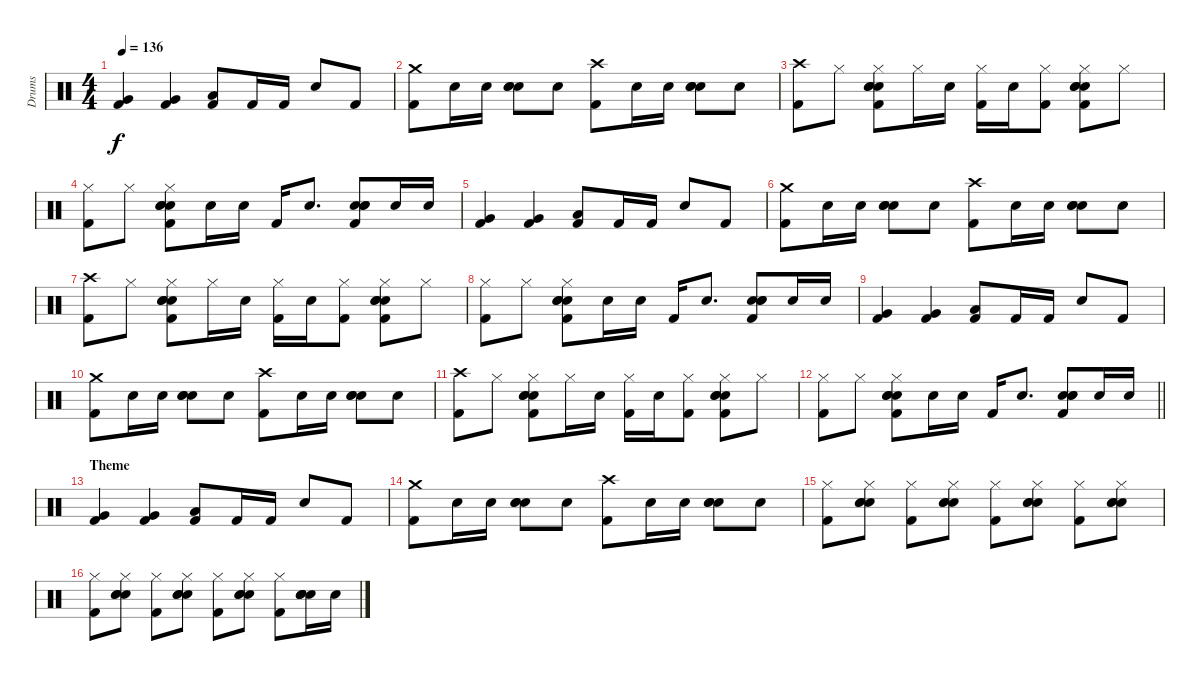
\track ("Drums" "Drums") {instrument percussion}
\staff {score}
\articulation defaults
\ts (4 4)
\tempo 136
\clef neutral
\ks c
("Very Low Tom (hit)" "Kick (hit) 2").4{dy f} ("Very Low Tom (hit)" "Kick (hit) 2").4 ("Low Tom (hit)" "Kick (hit) 2").8 "Kick (hit) 2".16 "Kick (hit) 2".16 "Electric Snare (hit)".8 "Kick (hit) 2".8 |
("Crash medium (hit)" "Kick (hit) 2").8 "Electric Snare (hit)".16 "Electric Snare (hit)".16 ("Electric Snare (hit)" "Electric Snare (hit)" "Electric Snare (hit)").8 "Electric Snare (hit)".8 ("Crash high (hit)" "Kick (hit) 2").8 "Electric Snare (hit)".16 "Electric Snare (hit)".16 ("Electric Snare (hit)" "Electric Snare (hit)" "Electric Snare (hit)").8 "Electric Snare (hit)".8 |
("Crash high (hit)" "Kick (hit) 2").8 "Hi-Hat (closed)".8 ("Hi-Hat (closed)" "Electric Snare (hit)" "Electric Snare (hit)" "Electric Snare (hit)" "Kick (hit) 2").8 "Hi-Hat (closed)".16 "Electric Snare (hit)".16 ("Hi-Hat (closed)" "Kick (hit) 2").16 "Electric Snare (hit)".16 ("Hi-Hat (closed)" "Kick (hit) 2").8 ("Hi-Hat (closed)" "Electric Snare (hit)" "Electric Snare (hit)" "Electric Snare (hit)" "Kick (hit) 2").8 "Hi-Hat (closed)".8 |
("Hi-Hat (closed)" "Kick (hit) 2").8 "Hi-Hat (closed)".8 ("Hi-Hat (closed)" "Electric Snare (hit)" "Electric Snare (hit)" "Electric Snare (hit)" "Kick (hit) 2").8 "Electric Snare (hit)".16 "Electric Snare (hit)".16 "Kick (hit) 2".16 "Electric Snare (hit)".8{d} ("Electric Snare (hit)" "Electric Snare (hit)" "Electric Snare (hit)" "Kick (hit) 2").8 "Electric Snare (hit)".16 "Electric Snare (hit)".16 |
("Very Low Tom (hit)" "Kick (hit) 2").4 ("Very Low Tom (hit)" "Kick (hit) 2").4 ("Low Tom (hit)" "Kick (hit) 2").8 "Kick (hit) 2".16 "Kick (hit) 2".16 "Electric Snare (hit)".8 "Kick (hit) 2".8 |
("Crash medium (hit)" "Kick (hit) 2").8 "Electric Snare (hit)".16 "Electric Snare (hit)".16 ("Electric Snare (hit)" "Electric Snare (hit)" "Electric Snare (hit)").8 "Electric Snare (hit)".8 ("Crash high (hit)" "Kick (hit) 2").8 "Electric Snare (hit)".16 "Electric Snare (hit)".16 ("Electric Snare (hit)" "Electric Snare (hit)" "Electric Snare (hit)").8 "Electric Snare (hit)".8 |
("Crash high (hit)" "Kick (hit) 2").8 "Hi-Hat (closed)".8 ("Hi-Hat (closed)" "Electric Snare (hit)" "Electric Snare (hit)" "Electric Snare (hit)" "Kick (hit) 2").8 "Hi-Hat (closed)".16 "Electric Snare (hit)".16 ("Hi-Hat (closed)" "Kick (hit) 2").16 "Electric Snare (hit)".16 ("Hi-Hat (closed)" "Kick (hit) 2").8 ("Hi-Hat (closed)" "Electric Snare (hit)" "Electric Snare (hit)" "Electric Snare (hit)" "Kick (hit) 2").8 "Hi-Hat (closed)".8 |
("Hi-Hat (closed)" "Kick (hit) 2").8 "Hi-Hat (closed)".8 ("Hi-Hat (closed)" "Electric Snare (hit)" "Electric Snare (hit)" "Electric Snare (hit)" "Kick (hit) 2").8 "Electric Snare (hit)".16 "Electric Snare (hit)".16 "Kick (hit) 2".16 "Electric Snare (hit)".8{d} ("Electric Snare (hit)" "Electric Snare (hit)" "Electric Snare (hit)" "Kick (hit) 2").8 "Electric Snare (hit)".16 "Electric Snare (hit)".16 |
("Very Low Tom (hit)" "Kick (hit) 2").4 ("Very Low Tom (hit)" "Kick (hit) 2").4 ("Low Tom (hit)" "Kick (hit) 2").8 "Kick (hit) 2".16 "Kick (hit) 2".16 "Electric Snare (hit)".8 "Kick (hit) 2".8 |
("Crash medium (hit)" "Kick (hit) 2").8 "Electric Snare (hit)".16 "Electric Snare (hit)".16 ("Electric Snare (hit)" "Electric Snare (hit)" "Electric Snare (hit)").8 "Electric Snare (hit)".8 ("Crash high (hit)" "Kick (hit) 2").8 "Electric Snare (hit)".16 "Electric Snare (hit)".16 ("Electric Snare (hit)" "Electric Snare (hit)" "Electric Snare (hit)").8 "Electric Snare (hit)".8 |
("Crash high (hit)" "Kick (hit) 2").8 "Hi-Hat (closed)".8 ("Hi-Hat (closed)" "Electric Snare (hit)" "Electric Snare (hit)" "Electric Snare (hit)" "Kick (hit) 2").8 "Hi-Hat (closed)".16 "Electric Snare (hit)".16 ("Hi-Hat (closed)" "Kick (hit) 2").16 "Electric Snare (hit)".16 ("Hi-Hat (closed)" "Kick (hit) 2").8 ("Hi-Hat (closed)" "Electric Snare (hit)" "Electric Snare (hit)" "Electric Snare (hit)" "Kick (hit) 2").8 "Hi-Hat (closed)".8 |
\barLineRight lightlight
("Hi-Hat (closed)" "Kick (hit) 2").8 "Hi-Hat (closed)".8 ("Hi-Hat (closed)" "Electric Snare (hit)" "Electric Snare (hit)" "Electric Snare (hit)" "Kick (hit) 2").8 "Electric Snare (hit)".16 "Electric Snare (hit)".16 "Kick (hit) 2".16 "Electric Snare (hit)".8{d} ("Electric Snare (hit)" "Electric Snare (hit)" "Electric Snare (hit)" "Kick (hit) 2").8 "Electric Snare (hit)".16 "Electric Snare (hit)".16 |
\section ("" "Theme")
("Very Low Tom (hit)" "Kick (hit) 2").4 ("Very Low Tom (hit)" "Kick (hit) 2").4 ("Low Tom (hit)" "Kick (hit) 2").8 "Kick (hit) 2".16 "Kick (hit) 2".16 "Electric Snare (hit)".8 "Kick (hit) 2".8 |
("Crash medium (hit)" "Kick (hit) 2").8 "Electric Snare (hit)".16 "Electric Snare (hit)".16 ("Electric Snare (hit)" "Electric Snare (hit)" "Electric Snare (hit)").8 "Electric Snare (hit)".8 ("Crash high (hit)" "Kick (hit) 2").8 "Electric Snare (hit)".16 "Electric Snare (hit)".16 ("Electric Snare (hit)" "Electric Snare (hit)" "Electric Snare (hit)").8 "Electric Snare (hit)".8 |
("Hi-Hat (closed)" "Kick (hit) 2").8 ("Hi-Hat (closed)" "Electric Snare (hit)" "Electric Snare (hit)" "Electric Snare (hit)").8 ("Hi-Hat (closed)" "Kick (hit) 2").8 ("Hi-Hat (closed)" "Electric Snare (hit)" "Electric Snare (hit)" "Electric Snare (hit)").8 ("Hi-Hat (closed)" "Kick (hit) 2").8 ("Hi-Hat (closed)" "Electric Snare (hit)" "Electric Snare (hit)" "Electric Snare (hit)").8 ("Hi-Hat (closed)" "Kick (hit) 2").8 ("Hi-Hat (closed)" "Electric Snare (hit)" "Electric Snare (hit)" "Electric Snare (hit)").8 |
("Hi-Hat (closed)" "Kick (hit) 2").8 ("Hi-Hat (closed)" "Electric Snare (hit)" "Electric Snare (hit)" "Electric Snare (hit)").8 ("Hi-Hat (closed)" "Kick (hit) 2").8 ("Hi-Hat (closed)" "Electric Snare (hit)" "Electric Snare (hit)" "Electric Snare (hit)").8 ("Hi-Hat (closed)" "Kick (hit) 2").8 ("Hi-Hat (closed)" "Electric Snare (hit)" "Electric Snare (hit)" "Electric Snare (hit)").8 ("Hi-Hat (closed)" "Kick (hit) 2").8 ("Electric Snare (hit)" "Electric Snare (hit)" "Electric Snare (hit)" "Electric Snare (hit)").16 "Electric Snare (hit)".16
